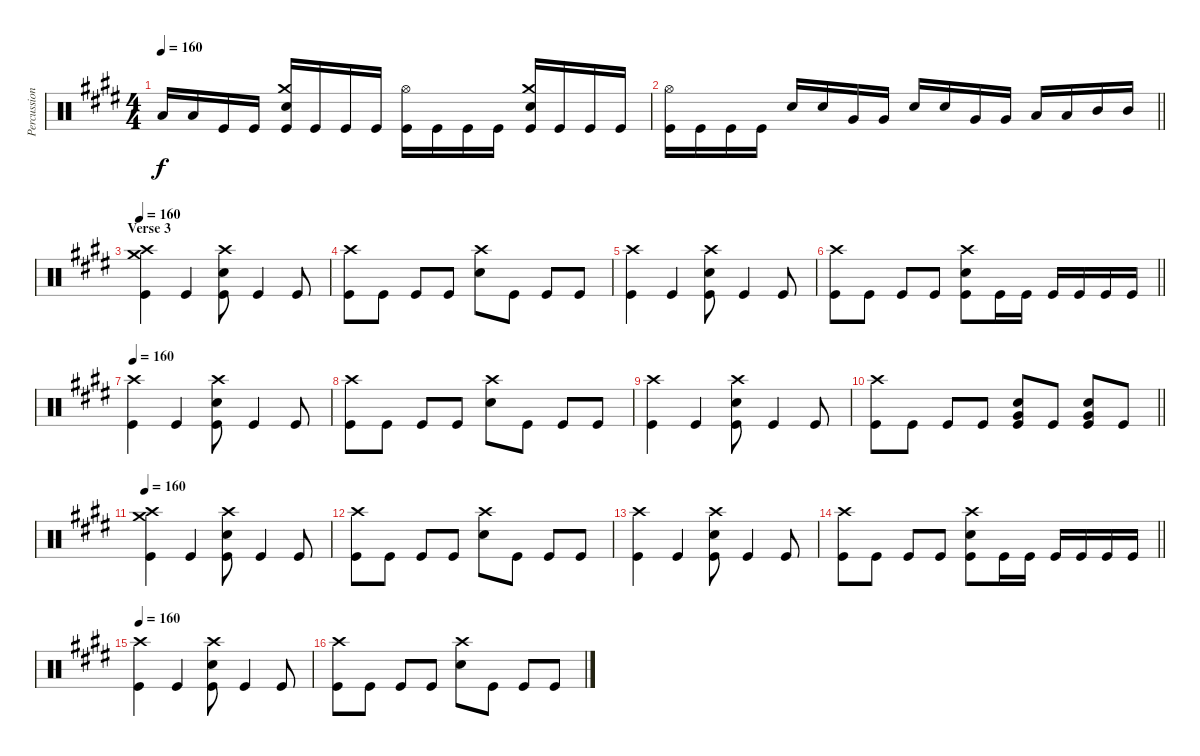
\track ("Percussion" "Percussion") {instrument percussion}
\staff {score}
\articulation defaults
\ts (4 4)
\tempo 160
\clef neutral
\ks e "Low Floor Tom (hit)".16{dy f} "Low Floor Tom (hit)".16 "Kick (hit)".16 "Kick (hit)".16
("Crash medium (hit)" "Electric Snare (hit)" "Kick (hit)").16 "Kick (hit)".16 "Kick (hit)".16 "Kick (hit)".16 ("Hi-Hat (open)" "Kick (hit)").16 "Kick (hit)".16 "Kick (hit)".16 "Kick (hit)".16 ("Crash medium (hit)" "Electric Snare (hit)" "Kick (hit)").16 "Kick (hit)".16 "Kick (hit)".16 "Kick (hit)".16 |
\barLineRight lightlight
("Hi-Hat (open)" "Kick (hit)").16 "Kick (hit)".16 "Kick (hit)".16 "Kick (hit)".16 "Electric Snare (hit)".16 "Electric Snare (hit)".16 "Very Low Tom (hit)".16 "Very Low Tom (hit)".16 "Electric Snare (hit)".16 "Electric Snare (hit)".16 "Very Low Tom (hit)".16 "Very Low Tom (hit)".16 "Low Tom (hit)".16 "Low Tom (hit)".16 "Mid Tom (hit)".16 "Mid Tom (hit)".16 |
\section ("" "Verse 3")
\tempo 160
("Crash high (hit)" "Crash medium (hit)" "Kick (hit)").4 "Kick (hit)".4 ("Crash high (hit)" "Electric Snare (hit)" "Kick (hit)").8 "Kick (hit)".4 "Kick (hit)".8 |
("Crash high (hit)" "Kick (hit)").8 "Kick (hit)".8 "Kick (hit)".8 "Kick (hit)".8 ("Crash high (hit)" "Electric Snare (hit)").8 "Kick (hit)".8 "Kick (hit)".8 "Kick (hit)".8 |
("Crash high (hit)" "Kick (hit)").4 "Kick (hit)".4 ("Crash high (hit)" "Electric Snare (hit)" "Kick (hit)").8 "Kick (hit)".4 "Kick (hit)".8 |
\barLineRight lightlight
("Crash high (hit)" "Kick (hit)").8 "Kick (hit)".8 "Kick (hit)".8 "Kick (hit)".8 ("Crash high (hit)" "Electric Snare (hit)" "Kick (hit)").8 "Kick (hit)".16 "Kick (hit)".16 "Kick (hit)".16 "Kick (hit)".16 "Kick (hit)".16 "Kick (hit)".16 |
\tempo 160
("Crash high (hit)" "Kick (hit)").4 "Kick (hit)".4 ("Crash high (hit)" "Electric Snare (hit)" "Kick (hit)").8 "Kick (hit)".4 "Kick (hit)".8 |
("Crash high (hit)" "Kick (hit)").8 "Kick (hit)".8 "Kick (hit)".8 "Kick (hit)".8 ("Crash high (hit)" "Electric Snare (hit)").8 "Kick (hit)".8 "Kick (hit)".8 "Kick (hit)".8 |
("Crash high (hit)" "Kick (hit)").4 "Kick (hit)".4 ("Crash high (hit)" "Electric Snare (hit)" "Kick (hit)").8 "Kick (hit)".4 "Kick (hit)".8 |
\barLineRight lightlight
("Crash high (hit)" "Kick (hit)").8 "Kick (hit)".8 "Kick (hit)".8 "Kick (hit)".8 ("Electric Snare (hit)" "Very Low Tom (hit)" "Kick (hit)").8 "Kick (hit)".8 ("Electric Snare (hit)" "Very Low Tom (hit)" "Kick (hit)").8 "Kick (hit)".8 |
\section ("" "")
\tempo 160
("Crash high (hit)" "Crash medium (hit)" "Kick (hit)").4 "Kick (hit)".4 ("Crash high (hit)" "Electric Snare (hit)" "Kick (hit)").8 "Kick (hit)".4 "Kick (hit)".8 |
("Crash high (hit)" "Kick (hit)").8 "Kick (hit)".8 "Kick (hit)".8 "Kick (hit)".8 ("Crash high (hit)" "Electric Snare (hit)").8 "Kick (hit)".8 "Kick (hit)".8 "Kick (hit)".8 |
("Crash high (hit)" "Kick (hit)").4 "Kick (hit)".4 ("Crash high (hit)" "Electric Snare (hit)" "Kick (hit)").8 "Kick (hit)".4 "Kick (hit)".8 |
\barLineRight lightlight
("Crash high (hit)" "Kick (hit)").8 "Kick (hit)".8 "Kick (hit)".8 "Kick (hit)".8 ("Crash high (hit)" "Electric Snare (hit)" "Kick (hit)").8 "Kick (hit)".16 "Kick (hit)".16 "Kick (hit)".16 "Kick (hit)".16 "Kick (hit)".16 "Kick (hit)".16 |
\tempo 160
("Crash high (hit)" "Kick (hit)").4 "Kick (hit)".4 ("Crash high (hit)" "Electric Snare (hit)" "Kick (hit)").8 "Kick (hit)".4 "Kick (hit)".8 |
("Crash high (hit)" "Kick (hit)").8 "Kick (hit)".8 "Kick (hit)".8 "Kick (hit)".8 ("Crash high (hit)" "Electric Snare (hit)").8 "Kick (hit)".8 "Kick (hit)".8 "Kick (hit)".8
